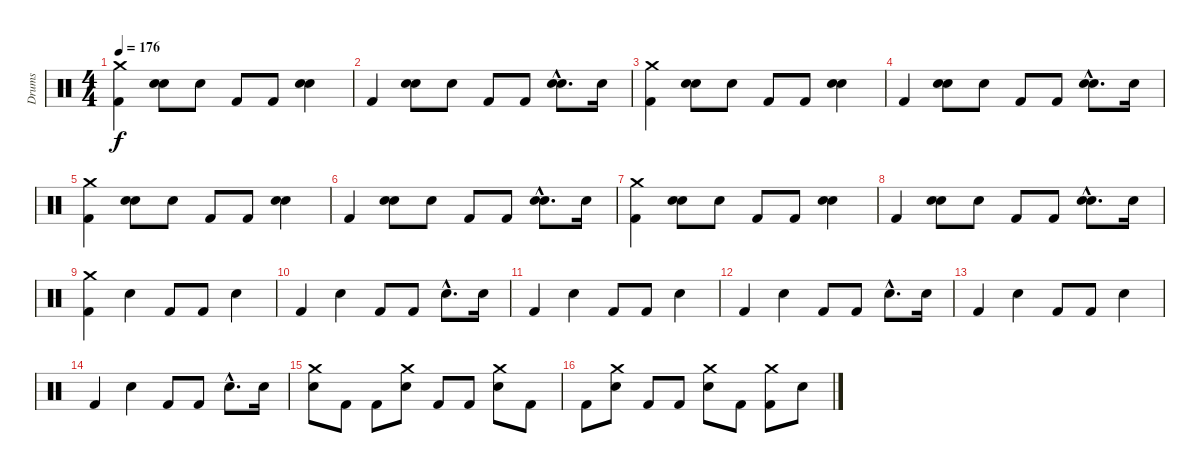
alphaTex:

\track ("Drums" "Drums") {instrument percussion}
\staff {score}
\articulation defaults
\ts (4 4)
\tempo 176
\clef neutral
\ks c
("Kick (hit) 2" "Crash medium (hit)").4{dy f volume 15} ("Snare (hit) 2" "Hand Clap (hit)").8 "Hand Clap (hit)".8 "Kick (hit) 2".8 "Kick (hit) 2".8 ("Snare (hit) 2" "Hand Clap (hit)").4 |
"Kick (hit) 2".4 ("Snare (hit) 2" "Hand Clap (hit)").8 "Hand Clap (hit)".8 "Kick (hit) 2".8 "Kick (hit) 2".8 ("Snare (hit) 2"{hac} "Hand Clap (hit)"{hac}).8{d} "Snare (hit) 2".16 |
("Kick (hit) 2" "Crash medium (hit)").4{volume 15} ("Snare (hit) 2" "Hand Clap (hit)").8 "Hand Clap (hit)".8 "Kick (hit) 2".8 "Kick (hit) 2".8 ("Snare (hit) 2" "Hand Clap (hit)").4 |
"Kick (hit) 2".4 ("Snare (hit) 2" "Hand Clap (hit)").8 "Hand Clap (hit)".8 "Kick (hit) 2".8 "Kick (hit) 2".8 ("Snare (hit) 2"{hac} "Hand Clap (hit)"{hac}).8{d} "Snare (hit) 2".16 |
("Kick (hit) 2" "Crash medium (hit)").4{volume 15} ("Snare (hit) 2" "Hand Clap (hit)").8 "Hand Clap (hit)".8 "Kick (hit) 2".8 "Kick (hit) 2".8 ("Snare (hit) 2" "Hand Clap (hit)").4 |
"Kick (hit) 2".4 ("Snare (hit) 2" "Hand Clap (hit)").8 "Hand Clap (hit)".8 "Kick (hit) 2".8 "Kick (hit) 2".8 ("Snare (hit) 2"{hac} "Hand Clap (hit)"{hac}).8{d} "Snare (hit) 2".16 |
("Kick (hit) 2" "Crash medium (hit)").4{volume 15} ("Snare (hit) 2" "Hand Clap (hit)").8 "Hand Clap (hit)".8 "Kick (hit) 2".8 "Kick (hit) 2".8 ("Snare (hit) 2" "Hand Clap (hit)").4 |
"Kick (hit) 2".4 ("Snare (hit) 2" "Hand Clap (hit)").8 "Hand Clap (hit)".8 "Kick (hit) 2".8 "Kick (hit) 2".8 ("Snare (hit) 2"{hac} "Hand Clap (hit)"{hac}).8{d} "Snare (hit) 2".16 |
("Kick (hit) 2" "Crash medium (hit)").4{volume 15} "Snare (hit) 2".4 "Kick (hit) 2".8 "Kick (hit) 2".8 "Snare (hit) 2".4 |
"Kick (hit) 2".4 "Snare (hit) 2".4 "Kick (hit) 2".8 "Kick (hit) 2".8 "Snare (hit) 2"{hac}.8{d} "Snare (hit) 2".16 |
"Kick (hit) 2".4 "Snare (hit) 2".4 "Kick (hit) 2".8 "Kick (hit) 2".8 "Snare (hit) 2".4 |
"Kick (hit) 2".4 "Snare (hit) 2".4 "Kick (hit) 2".8 "Kick (hit) 2".8 "Snare (hit) 2"{hac}.8{d} "Snare (hit) 2".16 |
"Kick (hit) 2".4 "Snare (hit) 2".4 "Kick (hit) 2".8 "Kick (hit) 2".8 "Snare (hit) 2".4 |
"Kick (hit) 2".4 "Snare (hit) 2".4 "Kick (hit) 2".8 "Kick (hit) 2".8 "Snare (hit) 2"{hac}.8{d} "Snare (hit) 2".16 |
("Snare (hit) 2" "Crash medium (hit)").8 "Kick (hit) 2".8 "Kick (hit) 2".8 ("Snare (hit) 2" "Crash medium (hit)").8 "Kick (hit) 2".8 "Kick (hit) 2".8 ("Snare (hit) 2" "Crash medium (hit)").8 "Kick (hit) 2".8 |
"Kick (hit) 2".8 ("Snare (hit) 2" "Crash medium (hit)").8 "Kick (hit) 2".8 "Kick (hit) 2".8 ("Snare (hit) 2" "Crash medium (hit)").8 "Kick (hit) 2".8 ("Kick (hit) 2" "Crash medium (hit)").8 "Snare (hit) 2".8
